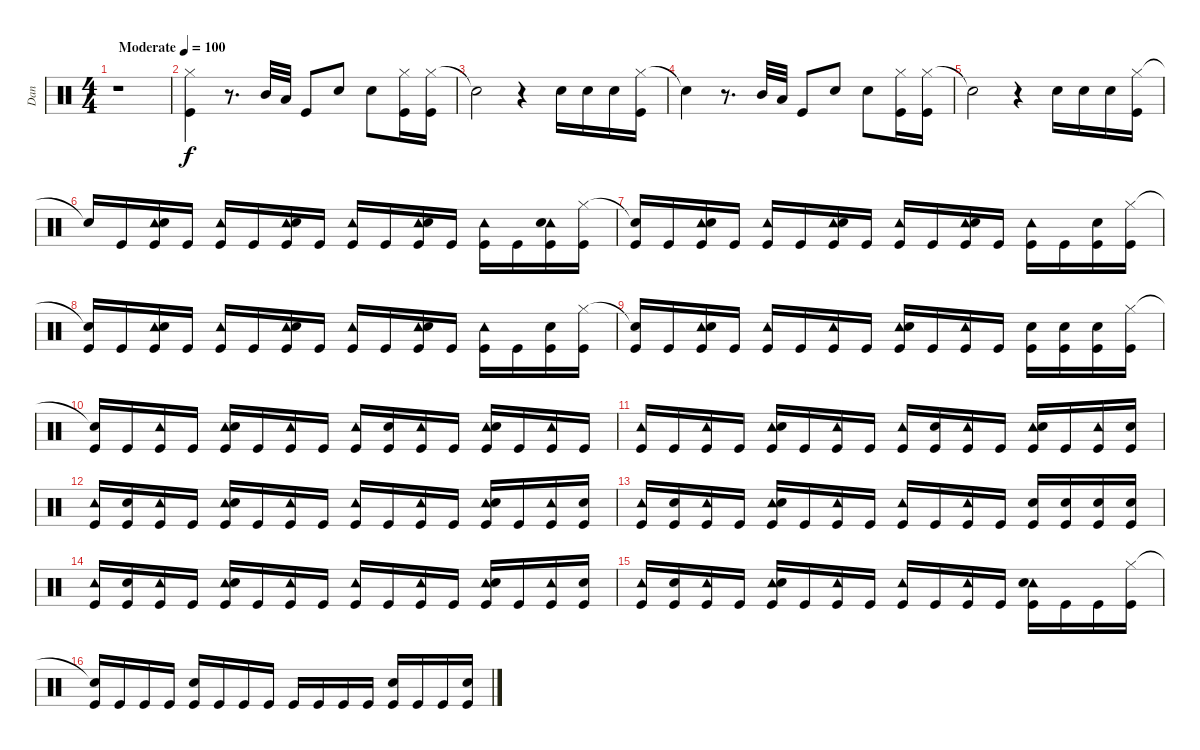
\track ("Dan" "Dan") {instrument percussion}
\staff {score}
\articulation defaults
\ts (4 4)
\tempo (100 "Moderate")
\clef neutral
\ks c
r.1{dy f} |
("Hi-Hat (closed)" "Kick (hit)").4 r.8{d} "Mid Tom (hit)".32 "Low Tom (hit)".32 "Kick (hit)".8 "Snare (hit) 2".8 "Snare (hit) 2".8 ("Hi-Hat (closed)" "Kick (hit)").16 ("Hi-Hat (closed)" "Kick (hit)").16 |
"Snare (hit)"{t}.2 r.4 "Snare (hit) 2".16 "Snare (hit) 2".16 "Snare (hit) 2".16 ("Hi-Hat (closed)" "Kick (hit)").16 |
"Snare (hit)"{t}.4 r.8{d} "Mid Tom (hit)".32 "Low Tom (hit)".32 "Kick (hit)".8 "Snare (hit) 2".8 "Snare (hit) 2".8 ("Hi-Hat (closed)" "Kick (hit)").16 ("Hi-Hat (closed)" "Kick (hit)").16 |
"Snare (hit)"{t}.2 r.4 "Snare (hit) 2".16 "Snare (hit) 2".16 "Snare (hit) 2".16 ("Hi-Hat (closed)" "Kick (hit)").16 |
"Snare (hit)"{t}.16 "Kick (hit)".16 ("Tambourine (hit)" "Snare (hit) 2" "Kick (hit)").16 "Kick (hit)".16 ("Tambourine (hit)" "Kick (hit)").16 "Kick (hit)".16 ("Tambourine (hit)" "Snare (hit) 2" "Kick (hit)").16 "Kick (hit)".16 ("Tambourine (hit)" "Kick (hit)").16 "Kick (hit)".16 ("Tambourine (hit)" "Snare (hit) 2" "Kick (hit)").16 "Kick (hit)".16 ("Tambourine (hit)" "Kick (hit)").16 "Kick (hit)".16 ("Tambourine (hit)" "Snare (hit) 2" "Kick (hit)").16 ("Hi-Hat (closed)" "Kick (hit)").16 |
("Snare (hit)"{t} "Kick (hit)").16 "Kick (hit)".16 ("Tambourine (hit)" "Snare (hit) 2" "Kick (hit)").16 "Kick (hit)".16 ("Tambourine (hit)" "Kick (hit)").16 "Kick (hit)".16 ("Tambourine (hit)" "Snare (hit) 2" "Kick (hit)").16 "Kick (hit)".16 ("Tambourine (hit)" "Kick (hit)").16 "Kick (hit)".16 ("Tambourine (hit)" "Snare (hit) 2" "Kick (hit)").16 "Kick (hit)".16 ("Tambourine (hit)" "Kick (hit)").16 "Kick (hit)".16 ("Snare (hit) 2" "Kick (hit)").16 ("Hi-Hat (closed)" "Kick (hit)").16 |
("Snare (hit)"{t} "Kick (hit)").16 "Kick (hit)".16 ("Tambourine (hit)" "Snare (hit) 2" "Kick (hit)").16 "Kick (hit)".16 ("Tambourine (hit)" "Kick (hit)").16 "Kick (hit)".16 ("Tambourine (hit)" "Snare (hit) 2" "Kick (hit)").16 "Kick (hit)".16 ("Tambourine (hit)" "Kick (hit)").16 "Kick (hit)".16 ("Tambourine (hit)" "Snare (hit) 2" "Kick (hit)").16 "Kick (hit)".16 ("Tambourine (hit)" "Kick (hit)").16 "Kick (hit)".16 ("Snare (hit) 2" "Kick (hit)").16 ("Hi-Hat (closed)" "Kick (hit)").16 |
("Snare (hit)"{t} "Kick (hit)").16 "Kick (hit)".16 ("Tambourine (hit)" "Snare (hit) 2" "Kick (hit)").16 "Kick (hit)".16 ("Tambourine (hit)" "Kick (hit)").16 "Kick (hit)".16 ("Tambourine (hit)" "Kick (hit)").16 "Kick (hit)".16 ("Tambourine (hit)" "Snare (hit) 2" "Kick (hit)").16 "Kick (hit)".16 ("Tambourine (hit)" "Kick (hit)").16 "Kick (hit)".16 ("Snare (hit) 2" "Kick (hit)").16 ("Snare (hit) 2" "Kick (hit)").16 ("Snare (hit) 2" "Kick (hit)").16 ("Hi-Hat (closed)" "Kick (hit)").16 |
("Snare (hit)"{t} "Kick (hit)").16 "Kick (hit)".16 ("Tambourine (hit)" "Kick (hit)").16 "Kick (hit)".16 ("Tambourine (hit)" "Snare (hit) 2" "Kick (hit)").16 "Kick (hit)".16 ("Tambourine (hit)" "Kick (hit)").16 "Kick (hit)".16 ("Tambourine (hit)" "Kick (hit)").16 ("Snare (hit) 2" "Kick (hit)").16 ("Tambourine (hit)" "Kick (hit)").16 "Kick (hit)".16 ("Tambourine (hit)" "Snare (hit) 2" "Kick (hit)").16 "Kick (hit)".16 ("Tambourine (hit)" "Kick (hit)").16 "Kick (hit)".16 |
("Tambourine (hit)" "Kick (hit)").16 "Kick (hit)".16 ("Tambourine (hit)" "Kick (hit)").16 "Kick (hit)".16 ("Tambourine (hit)" "Snare (hit) 2" "Kick (hit)").16 "Kick (hit)".16 ("Tambourine (hit)" "Kick (hit)").16 "Kick (hit)".16 ("Tambourine (hit)" "Kick (hit)").16 ("Snare (hit) 2" "Kick (hit)").16 ("Tambourine (hit)" "Kick (hit)").16 "Kick (hit)".16 ("Tambourine (hit)" "Snare (hit) 2" "Kick (hit)").16 "Kick (hit)".16 ("Tambourine (hit)" "Kick (hit)").16 ("Snare (hit) 2" "Kick (hit)").16 |
("Tambourine (hit)" "Kick (hit)").16 ("Snare (hit) 2" "Kick (hit)").16 ("Tambourine (hit)" "Kick (hit)").16 "Kick (hit)".16 ("Tambourine (hit)" "Snare (hit) 2" "Kick (hit)").16 "Kick (hit)".16 ("Tambourine (hit)" "Kick (hit)").16 "Kick (hit)".16 ("Tambourine (hit)" "Kick (hit)").16 "Kick (hit)".16 ("Tambourine (hit)" "Kick (hit)").16 "Kick (hit)".16 ("Tambourine (hit)" "Snare (hit) 2" "Kick (hit)").16 "Kick (hit)".16 ("Tambourine (hit)" "Kick (hit)").16 ("Snare (hit) 2" "Kick (hit)").16 |
("Tambourine (hit)" "Kick (hit)").16 ("Snare (hit) 2" "Kick (hit)").16 ("Tambourine (hit)" "Kick (hit)").16 "Kick (hit)".16 ("Tambourine (hit)" "Snare (hit) 2" "Kick (hit)").16 "Kick (hit)".16 ("Tambourine (hit)" "Kick (hit)").16 "Kick (hit)".16 ("Tambourine (hit)" "Kick (hit)").16 "Kick (hit)".16 ("Tambourine (hit)" "Kick (hit)").16 "Kick (hit)".16 ("Snare (hit) 2" "Kick (hit)").16 ("Snare (hit) 2" "Kick (hit)").16 ("Snare (hit) 2" "Kick (hit)").16 ("Snare (hit) 2" "Kick (hit)").16 |
("Tambourine (hit)" "Kick (hit)").16 ("Snare (hit) 2" "Kick (hit)").16 ("Tambourine (hit)" "Kick (hit)").16 "Kick (hit)".16 ("Tambourine (hit)" "Snare (hit) 2" "Kick (hit)").16 "Kick (hit)".16 ("Tambourine (hit)" "Kick (hit)").16 "Kick (hit)".16 ("Tambourine (hit)" "Kick (hit)").16 "Kick (hit)".16 ("Tambourine (hit)" "Kick (hit)").16 "Kick (hit)".16 ("Tambourine (hit)" "Snare (hit) 2" "Kick (hit)").16 "Kick (hit)".16 ("Tambourine (hit)" "Kick (hit)").16 ("Snare (hit) 2" "Kick (hit)").16 |
("Tambourine (hit)" "Kick (hit)").16 ("Snare (hit) 2" "Kick (hit)").16 ("Tambourine (hit)" "Kick (hit)").16 "Kick (hit)".16 ("Tambourine (hit)" "Snare (hit) 2" "Kick (hit)").16 "Kick (hit)".16 ("Tambourine (hit)" "Kick (hit)").16 "Kick (hit)".16 ("Tambourine (hit)" "Kick (hit)").16 "Kick (hit)".16 ("Tambourine (hit)" "Kick (hit)").16 "Kick (hit)".16 ("Tambourine (hit)" "Snare (hit) 2" "Kick (hit)").16 "Kick (hit)".16 "Kick (hit)".16 ("Hi-Hat (closed)" "Kick (hit)").16 |
("Snare (hit)"{t} "Kick (hit)").16 "Kick (hit)".16 "Kick (hit)".16 "Kick (hit)".16 ("Snare (hit) 2" "Kick (hit)").16 "Kick (hit)".16 "Kick (hit)".16 "Kick (hit)".16 "Kick (hit)".16 "Kick (hit)".16 "Kick (hit)".16 "Kick (hit)".16 ("Snare (hit) 2" "Kick (hit)").16 "Kick (hit)".16 "Kick (hit)".16 ("Snare (hit) 2" "Kick (hit)").16
